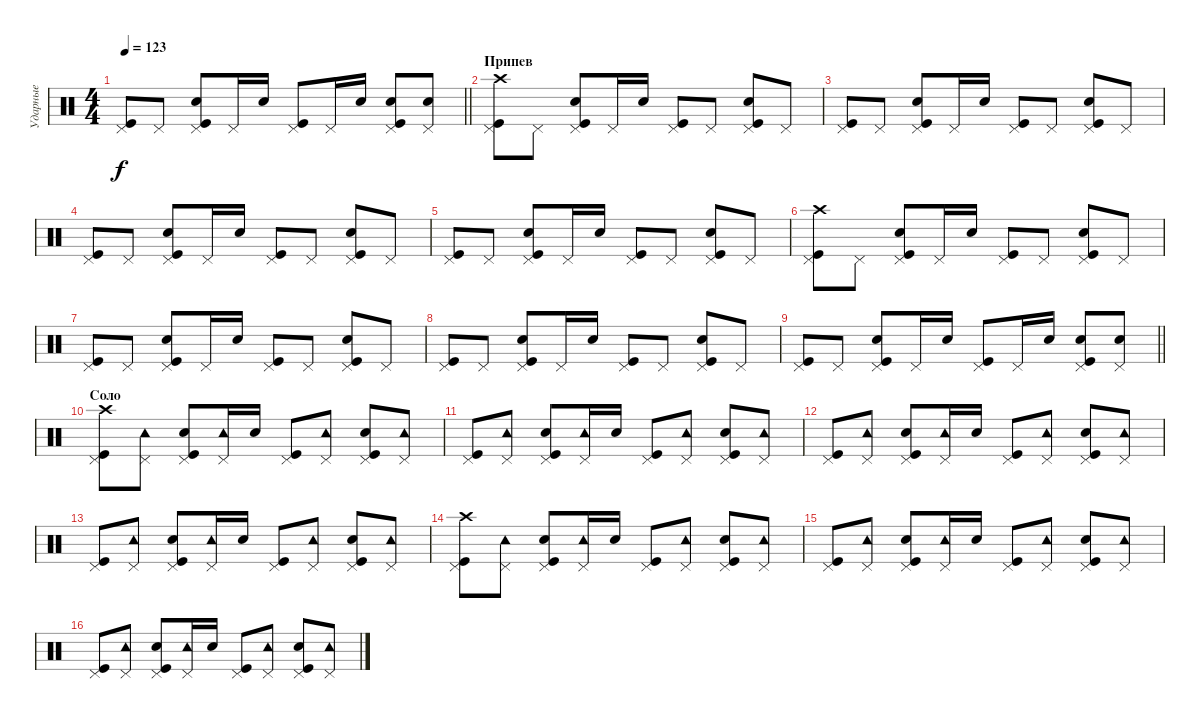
\track ("Ударные" "Ударные") {instrument percussion}
\staff {score}
\articulation defaults
\ts (4 4)
\tempo 123
\clef neutral
\barLineRight lightlight
\ks c
("Kick (hit)" "Pedal Hi-Hat (hit)").8{dy f} "Pedal Hi-Hat (hit)".8 ("Kick (hit)" "Pedal Hi-Hat (hit)" "Snare (hit) 2").8 "Pedal Hi-Hat (hit)".16 "Snare (hit) 2".16 ("Kick (hit)" "Pedal Hi-Hat (hit)").8 "Pedal Hi-Hat (hit)".16 "Snare (hit) 2".16 ("Kick (hit)" "Pedal Hi-Hat (hit)" "Snare (hit) 2").8 ("Pedal Hi-Hat (hit)" "Snare (hit) 2").8 |
\section ("" "Припев")
("Kick (hit)" "Pedal Hi-Hat (hit)" "Crash high (hit)").8 "Pedal Hi-Hat (hit)".8 ("Kick (hit)" "Pedal Hi-Hat (hit)" "Snare (hit) 2").8 "Pedal Hi-Hat (hit)".16 "Snare (hit) 2".16 ("Kick (hit)" "Pedal Hi-Hat (hit)").8 "Pedal Hi-Hat (hit)".8 ("Kick (hit)" "Pedal Hi-Hat (hit)" "Snare (hit) 2").8 "Pedal Hi-Hat (hit)".8 |
("Kick (hit)" "Pedal Hi-Hat (hit)").8 "Pedal Hi-Hat (hit)".8 ("Kick (hit)" "Pedal Hi-Hat (hit)" "Snare (hit) 2").8 "Pedal Hi-Hat (hit)".16 "Snare (hit) 2".16 ("Kick (hit)" "Pedal Hi-Hat (hit)").8 "Pedal Hi-Hat (hit)".8 ("Kick (hit)" "Pedal Hi-Hat (hit)" "Snare (hit) 2").8 "Pedal Hi-Hat (hit)".8 |
("Kick (hit)" "Pedal Hi-Hat (hit)").8 "Pedal Hi-Hat (hit)".8 ("Kick (hit)" "Pedal Hi-Hat (hit)" "Snare (hit) 2").8 "Pedal Hi-Hat (hit)".16 "Snare (hit) 2".16 ("Kick (hit)" "Pedal Hi-Hat (hit)").8 "Pedal Hi-Hat (hit)".8 ("Kick (hit)" "Pedal Hi-Hat (hit)" "Snare (hit) 2").8 "Pedal Hi-Hat (hit)".8 |
("Kick (hit)" "Pedal Hi-Hat (hit)").8 "Pedal Hi-Hat (hit)".8 ("Kick (hit)" "Pedal Hi-Hat (hit)" "Snare (hit) 2").8 "Pedal Hi-Hat (hit)".16 "Snare (hit) 2".16 ("Kick (hit)" "Pedal Hi-Hat (hit)").8 "Pedal Hi-Hat (hit)".8 ("Kick (hit)" "Pedal Hi-Hat (hit)" "Snare (hit) 2").8 "Pedal Hi-Hat (hit)".8 |
("Kick (hit)" "Pedal Hi-Hat (hit)" "Crash high (hit)").8 "Pedal Hi-Hat (hit)".8 ("Kick (hit)" "Pedal Hi-Hat (hit)" "Snare (hit) 2").8 "Pedal Hi-Hat (hit)".16 "Snare (hit) 2".16 ("Kick (hit)" "Pedal Hi-Hat (hit)").8 "Pedal Hi-Hat (hit)".8 ("Kick (hit)" "Pedal Hi-Hat (hit)" "Snare (hit) 2").8 "Pedal Hi-Hat (hit)".8 |
("Kick (hit)" "Pedal Hi-Hat (hit)").8 "Pedal Hi-Hat (hit)".8 ("Kick (hit)" "Pedal Hi-Hat (hit)" "Snare (hit) 2").8 "Pedal Hi-Hat (hit)".16 "Snare (hit) 2".16 ("Kick (hit)" "Pedal Hi-Hat (hit)").8 "Pedal Hi-Hat (hit)".8 ("Kick (hit)" "Pedal Hi-Hat (hit)" "Snare (hit) 2").8 "Pedal Hi-Hat (hit)".8 |
("Kick (hit)" "Pedal Hi-Hat (hit)").8 "Pedal Hi-Hat (hit)".8 ("Kick (hit)" "Pedal Hi-Hat (hit)" "Snare (hit) 2").8 "Pedal Hi-Hat (hit)".16 "Snare (hit) 2".16 ("Kick (hit)" "Pedal Hi-Hat (hit)").8 "Pedal Hi-Hat (hit)".8 ("Kick (hit)" "Pedal Hi-Hat (hit)" "Snare (hit) 2").8 "Pedal Hi-Hat (hit)".8 |
\barLineRight lightlight
("Kick (hit)" "Pedal Hi-Hat (hit)").8 "Pedal Hi-Hat (hit)".8 ("Kick (hit)" "Pedal Hi-Hat (hit)" "Snare (hit) 2").8 "Pedal Hi-Hat (hit)".16 "Snare (hit) 2".16 ("Kick (hit)" "Pedal Hi-Hat (hit)").8 "Pedal Hi-Hat (hit)".16 "Snare (hit) 2".16 ("Kick (hit)" "Pedal Hi-Hat (hit)" "Snare (hit) 2").8 ("Pedal Hi-Hat (hit)" "Snare (hit) 2").8 |
\section ("" "Соло")
("Kick (hit)" "Pedal Hi-Hat (hit)" "Crash high (hit)").8 ("Pedal Hi-Hat (hit)" "Tambourine (hit)").8 ("Kick (hit)" "Pedal Hi-Hat (hit)" "Snare (hit) 2").8 ("Pedal Hi-Hat (hit)" "Tambourine (hit)").16 "Snare (hit) 2".16 ("Kick (hit)" "Pedal Hi-Hat (hit)").8 ("Pedal Hi-Hat (hit)" "Tambourine (hit)").8 ("Kick (hit)" "Pedal Hi-Hat (hit)" "Snare (hit) 2").8 ("Pedal Hi-Hat (hit)" "Tambourine (hit)").8 |
("Kick (hit)" "Pedal Hi-Hat (hit)").8 ("Pedal Hi-Hat (hit)" "Tambourine (hit)").8 ("Kick (hit)" "Pedal Hi-Hat (hit)" "Snare (hit) 2").8 ("Pedal Hi-Hat (hit)" "Tambourine (hit)").16 "Snare (hit) 2".16 ("Kick (hit)" "Pedal Hi-Hat (hit)").8 ("Pedal Hi-Hat (hit)" "Tambourine (hit)").8 ("Kick (hit)" "Pedal Hi-Hat (hit)" "Snare (hit) 2").8 ("Pedal Hi-Hat (hit)" "Tambourine (hit)").8 |
("Kick (hit)" "Pedal Hi-Hat (hit)").8 ("Pedal Hi-Hat (hit)" "Tambourine (hit)").8 ("Kick (hit)" "Pedal Hi-Hat (hit)" "Snare (hit) 2").8 ("Pedal Hi-Hat (hit)" "Tambourine (hit)").16 "Snare (hit) 2".16 ("Kick (hit)" "Pedal Hi-Hat (hit)").8 ("Pedal Hi-Hat (hit)" "Tambourine (hit)").8 ("Kick (hit)" "Pedal Hi-Hat (hit)" "Snare (hit) 2").8 ("Pedal Hi-Hat (hit)" "Tambourine (hit)").8 |
("Kick (hit)" "Pedal Hi-Hat (hit)").8 ("Pedal Hi-Hat (hit)" "Tambourine (hit)").8 ("Kick (hit)" "Pedal Hi-Hat (hit)" "Snare (hit) 2").8 ("Pedal Hi-Hat (hit)" "Tambourine (hit)").16 "Snare (hit) 2".16 ("Kick (hit)" "Pedal Hi-Hat (hit)").8 ("Pedal Hi-Hat (hit)" "Tambourine (hit)").8 ("Kick (hit)" "Pedal Hi-Hat (hit)" "Snare (hit) 2").8 ("Pedal Hi-Hat (hit)" "Tambourine (hit)").8 |
("Kick (hit)" "Pedal Hi-Hat (hit)" "Crash high (hit)").8 ("Pedal Hi-Hat (hit)" "Tambourine (hit)").8 ("Kick (hit)" "Pedal Hi-Hat (hit)" "Snare (hit) 2").8 ("Pedal Hi-Hat (hit)" "Tambourine (hit)").16 "Snare (hit) 2".16 ("Kick (hit)" "Pedal Hi-Hat (hit)").8 ("Pedal Hi-Hat (hit)" "Tambourine (hit)").8 ("Kick (hit)" "Pedal Hi-Hat (hit)" "Snare (hit) 2").8 ("Pedal Hi-Hat (hit)" "Tambourine (hit)").8 |
("Kick (hit)" "Pedal Hi-Hat (hit)").8 ("Pedal Hi-Hat (hit)" "Tambourine (hit)").8 ("Kick (hit)" "Pedal Hi-Hat (hit)" "Snare (hit) 2").8 ("Pedal Hi-Hat (hit)" "Tambourine (hit)").16 "Snare (hit) 2".16 ("Kick (hit)" "Pedal Hi-Hat (hit)").8 ("Pedal Hi-Hat (hit)" "Tambourine (hit)").8 ("Kick (hit)" "Pedal Hi-Hat (hit)" "Snare (hit) 2").8 ("Pedal Hi-Hat (hit)" "Tambourine (hit)").8 |
("Kick (hit)" "Pedal Hi-Hat (hit)").8 ("Pedal Hi-Hat (hit)" "Tambourine (hit)").8 ("Kick (hit)" "Pedal Hi-Hat (hit)" "Snare (hit) 2").8 ("Pedal Hi-Hat (hit)" "Tambourine (hit)").16 "Snare (hit) 2".16 ("Kick (hit)" "Pedal Hi-Hat (hit)").8 ("Pedal Hi-Hat (hit)" "Tambourine (hit)").8 ("Kick (hit)" "Pedal Hi-Hat (hit)" "Snare (hit) 2").8 ("Pedal Hi-Hat (hit)" "Tambourine (hit)").8
